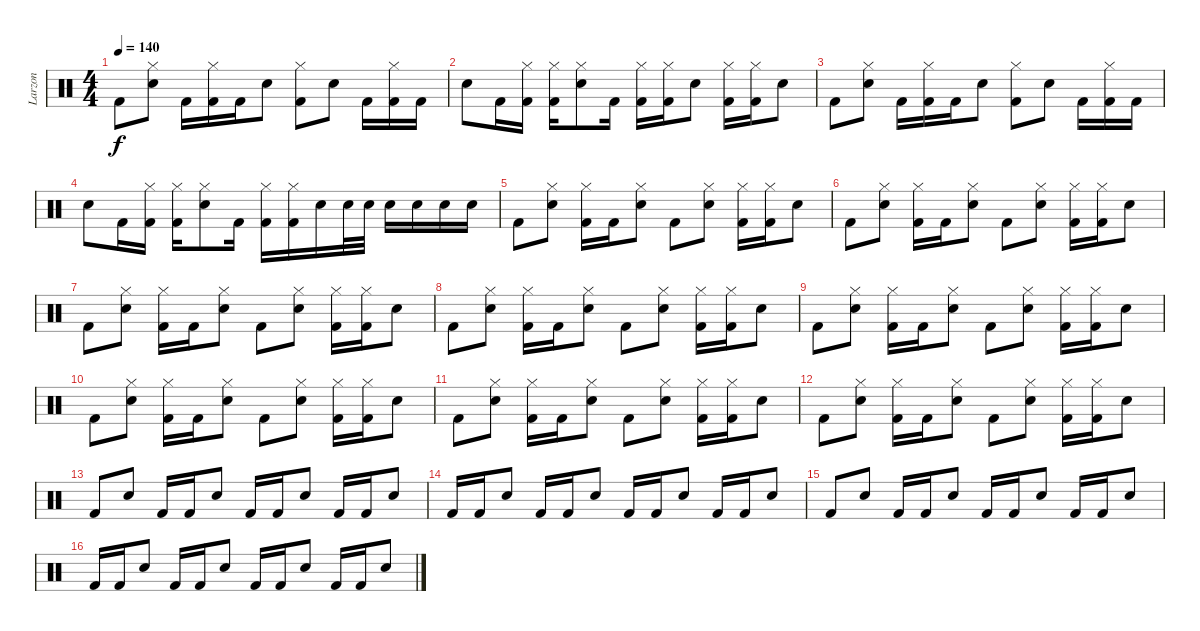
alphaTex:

\track ("Larzon" "Larzon") {instrument percussion}
\staff {score}
\articulation defaults
\ts (4 4)
\tempo 140
\clef neutral
\ks c "Kick (hit) 2".8{dy f}
("Hi-Hat (closed)" "Snare (hit) 2").8 "Kick (hit) 2".16 ("Hi-Hat (closed)" "Kick (hit) 2").16 "Kick (hit) 2".16 "Snare (hit) 2".8 ("Hi-Hat (closed)" "Kick (hit) 2").8 "Snare (hit) 2".8 "Kick (hit) 2".16 ("Hi-Hat (closed)" "Kick (hit) 2").16 "Kick (hit) 2".16 |
"Snare (hit) 2".8 "Kick (hit) 2".16 ("Hi-Hat (closed)" "Kick (hit) 2").16 ("Hi-Hat (closed)" "Kick (hit) 2").16 ("Hi-Hat (closed)" "Snare (hit) 2").8 "Kick (hit) 2".16 ("Hi-Hat (closed)" "Kick (hit) 2").16 ("Hi-Hat (closed)" "Kick (hit) 2").16 "Snare (hit) 2".8 ("Hi-Hat (closed)" "Kick (hit) 2").16 ("Hi-Hat (closed)" "Kick (hit) 2").16 "Snare (hit) 2".8 |
"Kick (hit) 2".8 ("Hi-Hat (closed)" "Snare (hit) 2").8 "Kick (hit) 2".16 ("Hi-Hat (closed)" "Kick (hit) 2").16 "Kick (hit) 2".16 "Snare (hit) 2".8 ("Hi-Hat (closed)" "Kick (hit) 2").8 "Snare (hit) 2".8 "Kick (hit) 2".16 ("Hi-Hat (closed)" "Kick (hit) 2").16 "Kick (hit) 2".16 |
"Snare (hit) 2".8 "Kick (hit) 2".16 ("Hi-Hat (closed)" "Kick (hit) 2").16 ("Hi-Hat (closed)" "Kick (hit) 2").16 ("Hi-Hat (closed)" "Snare (hit) 2").8 "Kick (hit) 2".16 ("Hi-Hat (closed)" "Kick (hit) 2").16 ("Hi-Hat (closed)" "Kick (hit) 2").16 "Snare (hit) 2".16 "Snare (hit) 2".32 "Snare (hit) 2".32 "Snare (hit) 2".16 "Snare (hit) 2".16 "Snare (hit) 2".16 "Snare (hit) 2".16 |
"Kick (hit) 2".8 ("Hi-Hat (closed)" "Snare (hit) 2").8 ("Hi-Hat (closed)" "Kick (hit) 2").16 "Kick (hit) 2".16 ("Hi-Hat (closed)" "Snare (hit) 2").8 "Kick (hit) 2".8 ("Hi-Hat (closed)" "Snare (hit) 2").8 ("Hi-Hat (closed)" "Kick (hit) 2").16 ("Hi-Hat (closed)" "Kick (hit) 2").16 "Snare (hit) 2".8 |
"Kick (hit) 2".8 ("Hi-Hat (closed)" "Snare (hit) 2").8 ("Hi-Hat (closed)" "Kick (hit) 2").16 "Kick (hit) 2".16 ("Hi-Hat (closed)" "Snare (hit) 2").8 "Kick (hit) 2".8 ("Hi-Hat (closed)" "Snare (hit) 2").8 ("Hi-Hat (closed)" "Kick (hit) 2").16 ("Hi-Hat (closed)" "Kick (hit) 2").16 "Snare (hit) 2".8 |
"Kick (hit) 2".8 ("Hi-Hat (closed)" "Snare (hit) 2").8 ("Hi-Hat (closed)" "Kick (hit) 2").16 "Kick (hit) 2".16 ("Hi-Hat (closed)" "Snare (hit) 2").8 "Kick (hit) 2".8 ("Hi-Hat (closed)" "Snare (hit) 2").8 ("Hi-Hat (closed)" "Kick (hit) 2").16 ("Hi-Hat (closed)" "Kick (hit) 2").16 "Snare (hit) 2".8 |
"Kick (hit) 2".8 ("Hi-Hat (closed)" "Snare (hit) 2").8 ("Hi-Hat (closed)" "Kick (hit) 2").16 "Kick (hit) 2".16 ("Hi-Hat (closed)" "Snare (hit) 2").8 "Kick (hit) 2".8 ("Hi-Hat (closed)" "Snare (hit) 2").8 ("Hi-Hat (closed)" "Kick (hit) 2").16 ("Hi-Hat (closed)" "Kick (hit) 2").16 "Snare (hit) 2".8 |
"Kick (hit) 2".8 ("Hi-Hat (closed)" "Snare (hit) 2").8 ("Hi-Hat (closed)" "Kick (hit) 2").16 "Kick (hit) 2".16 ("Hi-Hat (closed)" "Snare (hit) 2").8 "Kick (hit) 2".8 ("Hi-Hat (closed)" "Snare (hit) 2").8 ("Hi-Hat (closed)" "Kick (hit) 2").16 ("Hi-Hat (closed)" "Kick (hit) 2").16 "Snare (hit) 2".8 |
"Kick (hit) 2".8 ("Hi-Hat (closed)" "Snare (hit) 2").8 ("Hi-Hat (closed)" "Kick (hit) 2").16 "Kick (hit) 2".16 ("Hi-Hat (closed)" "Snare (hit) 2").8 "Kick (hit) 2".8 ("Hi-Hat (closed)" "Snare (hit) 2").8 ("Hi-Hat (closed)" "Kick (hit) 2").16 ("Hi-Hat (closed)" "Kick (hit) 2").16 "Snare (hit) 2".8 |
"Kick (hit) 2".8 ("Hi-Hat (closed)" "Snare (hit) 2").8 ("Hi-Hat (closed)" "Kick (hit) 2").16 "Kick (hit) 2".16 ("Hi-Hat (closed)" "Snare (hit) 2").8 "Kick (hit) 2".8 ("Hi-Hat (closed)" "Snare (hit) 2").8 ("Hi-Hat (closed)" "Kick (hit) 2").16 ("Hi-Hat (closed)" "Kick (hit) 2").16 "Snare (hit) 2".8 |
"Kick (hit) 2".8 ("Hi-Hat (closed)" "Snare (hit) 2").8 ("Hi-Hat (closed)" "Kick (hit) 2").16 "Kick (hit) 2".16 ("Hi-Hat (closed)" "Snare (hit) 2").8 "Kick (hit) 2".8 ("Hi-Hat (closed)" "Snare (hit) 2").8 ("Hi-Hat (closed)" "Kick (hit) 2").16 ("Hi-Hat (closed)" "Kick (hit) 2").16 "Snare (hit) 2".8 |
"Kick (hit) 2".8 "Snare (hit) 2".8 "Kick (hit) 2".16 "Kick (hit) 2".16 "Snare (hit) 2".8 "Kick (hit) 2".16 "Kick (hit) 2".16 "Snare (hit) 2".8 "Kick (hit) 2".16 "Kick (hit) 2".16 "Snare (hit) 2".8 |
"Kick (hit) 2".16 "Kick (hit) 2".16 "Snare (hit) 2".8 "Kick (hit) 2".16 "Kick (hit) 2".16 "Snare (hit) 2".8 "Kick (hit) 2".16 "Kick (hit) 2".16 "Snare (hit) 2".8 "Kick (hit) 2".16 "Kick (hit) 2".16 "Snare (hit) 2".8 |
"Kick (hit) 2".8 "Snare (hit) 2".8 "Kick (hit) 2".16 "Kick (hit) 2".16 "Snare (hit) 2".8 "Kick (hit) 2".16 "Kick (hit) 2".16 "Snare (hit) 2".8 "Kick (hit) 2".16 "Kick (hit) 2".16 "Snare (hit) 2".8 |
"Kick (hit) 2".16 "Kick (hit) 2".16 "Snare (hit) 2".8 "Kick (hit) 2".16 "Kick (hit) 2".16 "Snare (hit) 2".8 "Kick (hit) 2".16 "Kick (hit) 2".16 "Snare (hit) 2".8 "Kick (hit) 2".16 "Kick (hit) 2".16 "Snare (hit) 2".8
